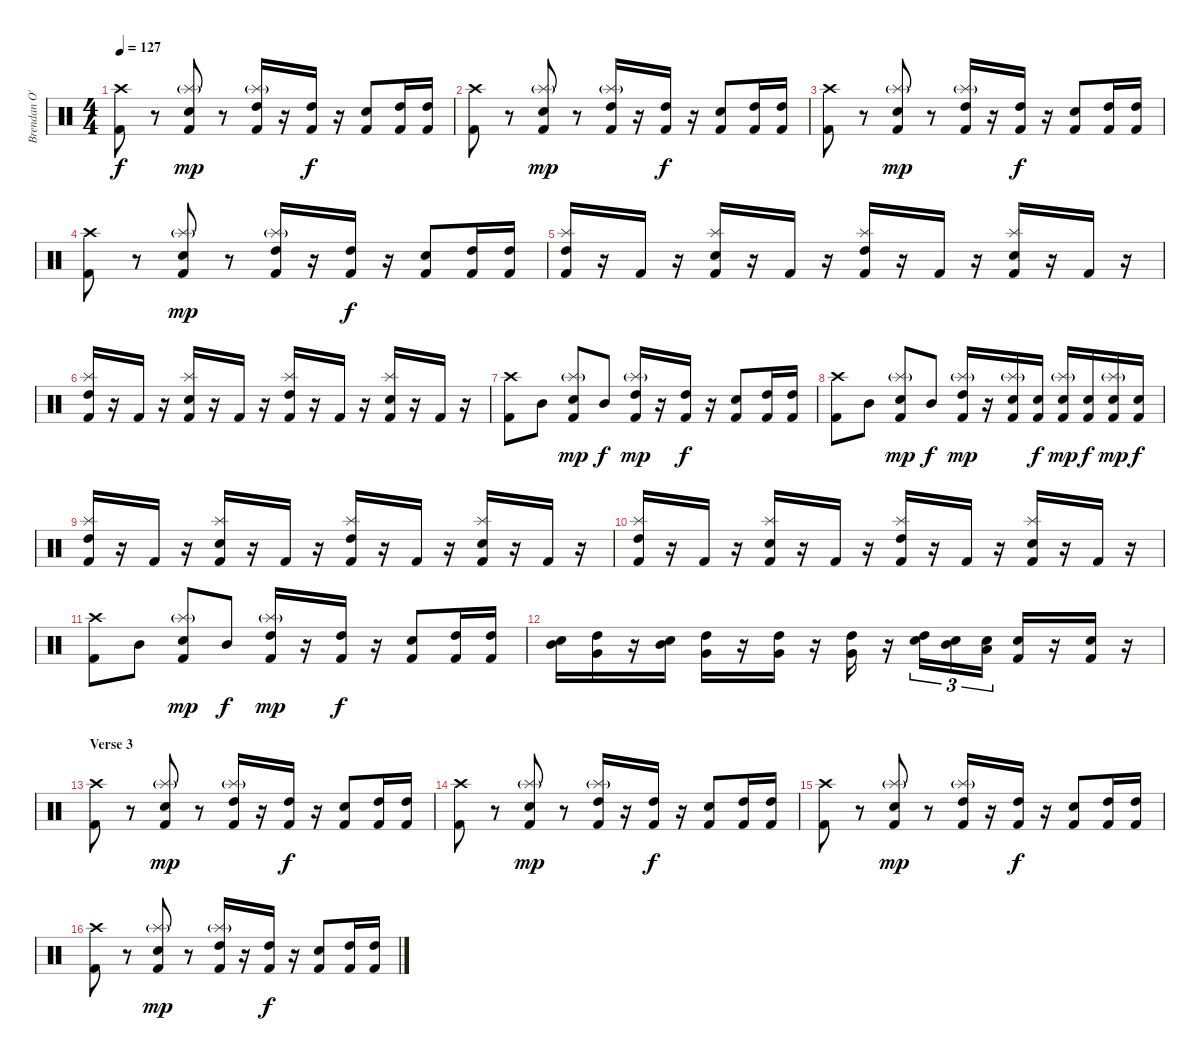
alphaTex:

\track ("Brendan O'Neil" "Brendan O'") {instrument percussion}
\staff {score}
\articulation defaults
\ts (4 4)
\tempo 127
\clef neutral
\ks c
("Crash high (hit)" "Kick (hit) 2").8{dy f} r.8 ("Splash (hit)"{g} "Snare (hit) 2" "Kick (hit) 2").8{dy mp} r.8 ("Splash (hit)"{g} "High Tom (hit)" "Kick (hit) 2").16 r.16 ("High Tom (hit)" "Kick (hit) 2").16{dy f} r.16 ("Snare (hit) 2" "Kick (hit) 2").8 ("High Tom (hit)" "Kick (hit) 2").16 ("High Tom (hit)" "Kick (hit) 2").16 |
("Crash high (hit)" "Kick (hit) 2").8 r.8 ("Splash (hit)"{g} "Snare (hit) 2" "Kick (hit) 2").8{dy mp} r.8 ("Splash (hit)"{g} "High Tom (hit)" "Kick (hit) 2").16 r.16 ("High Tom (hit)" "Kick (hit) 2").16{dy f} r.16 ("Snare (hit) 2" "Kick (hit) 2").8 ("High Tom (hit)" "Kick (hit) 2").16 ("High Tom (hit)" "Kick (hit) 2").16 |
("Crash high (hit)" "Kick (hit) 2").8 r.8 ("Splash (hit)"{g} "Snare (hit) 2" "Kick (hit) 2").8{dy mp} r.8 ("Splash (hit)"{g} "High Tom (hit)" "Kick (hit) 2").16 r.16 ("High Tom (hit)" "Kick (hit) 2").16{dy f} r.16 ("Snare (hit) 2" "Kick (hit) 2").8 ("High Tom (hit)" "Kick (hit) 2").16 ("High Tom (hit)" "Kick (hit) 2").16 |
("Crash high (hit)" "Kick (hit) 2").8 r.8 ("Splash (hit)"{g} "Snare (hit) 2" "Kick (hit) 2").8{dy mp} r.8 ("Splash (hit)"{g} "High Tom (hit)" "Kick (hit) 2").16 r.16 ("High Tom (hit)" "Kick (hit) 2").16{dy f} r.16 ("Snare (hit) 2" "Kick (hit) 2").8 ("High Tom (hit)" "Kick (hit) 2").16 ("High Tom (hit)" "Kick (hit) 2").16 |
("Splash (hit)" "High Tom (hit)" "Kick (hit) 2").16 r.16 "Kick (hit) 2".16 r.16 ("Splash (hit)" "Snare (hit) 2" "Kick (hit) 2").16 r.16 "Kick (hit) 2".16 r.16 ("Splash (hit)" "High Tom (hit)" "Kick (hit) 2").16 r.16 "Kick (hit) 2".16 r.16 ("Splash (hit)" "Snare (hit) 2" "Kick (hit) 2").16 r.16 "Kick (hit) 2".16 r.16 |
("Splash (hit)" "High Tom (hit)" "Kick (hit) 2").16 r.16 "Kick (hit) 2".16 r.16 ("Splash (hit)" "Snare (hit) 2" "Kick (hit) 2").16 r.16 "Kick (hit) 2".16 r.16 ("Splash (hit)" "High Tom (hit)" "Kick (hit) 2").16 r.16 "Kick (hit) 2".16 r.16 ("Splash (hit)" "Snare (hit) 2" "Kick (hit) 2").16 r.16 "Kick (hit) 2".16 r.16 |
("Crash high (hit)" "Kick (hit) 2").8 "Mid Tom (hit)".8 ("Splash (hit)"{g} "Snare (hit) 2" "Kick (hit) 2").8{dy mp} "Mid Tom (hit)".8{dy f} ("Splash (hit)"{g} "High Tom (hit)" "Kick (hit) 2").16{dy mp} r.16 ("High Tom (hit)" "Kick (hit) 2").16{dy f} r.16 ("Snare (hit) 2" "Kick (hit) 2").8 ("High Tom (hit)" "Kick (hit) 2").16 ("High Tom (hit)" "Kick (hit) 2").16 |
("Crash high (hit)" "Kick (hit) 2").8 "Mid Tom (hit)".8 ("Splash (hit)"{g} "Snare (hit) 2" "Kick (hit) 2").8{dy mp} "Mid Tom (hit)".8{dy f} ("Splash (hit)"{g} "High Tom (hit)" "Kick (hit) 2").16{dy mp} r.16 ("Splash (hit)"{g} "Snare (hit) 2" "Kick (hit) 2").16 ("Snare (hit) 2" "Kick (hit) 2").16{dy f} ("Splash (hit)"{g} "Snare (hit) 2" "Kick (hit) 2").16{dy mp} ("Snare (hit) 2" "Kick (hit) 2").16{dy f} ("Splash (hit)"{g} "Snare (hit) 2" "Kick (hit) 2").16{dy mp} ("Snare (hit) 2" "Kick (hit) 2").16{dy f} |
("Splash (hit)" "High Tom (hit)" "Kick (hit) 2").16 r.16 "Kick (hit) 2".16 r.16 ("Splash (hit)" "Snare (hit) 2" "Kick (hit) 2").16 r.16 "Kick (hit) 2".16 r.16 ("Splash (hit)" "High Tom (hit)" "Kick (hit) 2").16 r.16 "Kick (hit) 2".16 r.16 ("Splash (hit)" "Snare (hit) 2" "Kick (hit) 2").16 r.16 "Kick (hit) 2".16 r.16 |
("Splash (hit)" "High Tom (hit)" "Kick (hit) 2").16 r.16 "Kick (hit) 2".16 r.16 ("Splash (hit)" "Snare (hit) 2" "Kick (hit) 2").16 r.16 "Kick (hit) 2".16 r.16 ("Splash (hit)" "High Tom (hit)" "Kick (hit) 2").16 r.16 "Kick (hit) 2".16 r.16 ("Splash (hit)" "Snare (hit) 2" "Kick (hit) 2").16 r.16 "Kick (hit) 2".16 r.16 |
("Crash high (hit)" "Kick (hit) 2").8 "Mid Tom (hit)".8 ("Splash (hit)"{g} "Snare (hit) 2" "Kick (hit) 2").8{dy mp} "Mid Tom (hit)".8{dy f} ("Splash (hit)"{g} "High Tom (hit)" "Kick (hit) 2").16{dy mp} r.16 ("High Tom (hit)" "Kick (hit) 2").16{dy f} r.16 ("Snare (hit) 2" "Kick (hit) 2").8 ("High Tom (hit)" "Kick (hit) 2").16 ("High Tom (hit)" "Kick (hit) 2").16 |
("Snare (hit) 2" "Mid Tom (hit)").16 ("Very Low Tom (hit)" "High Tom (hit)").16 r.16 ("Snare (hit) 2" "Mid Tom (hit)").16 ("Very Low Tom (hit)" "High Tom (hit)").16 r.16 ("Very Low Tom (hit)" "High Tom (hit)").16 r.16 ("Very Low Tom (hit)" "High Tom (hit)").16 r.16 ("Snare (hit) 2" "High Tom (hit)").16{tu (3 2)} ("Snare (hit) 2" "Mid Tom (hit)").16{tu (3 2)} ("Snare (hit) 2" "Low Tom (hit)").16{tu (3 2)} ("Kick (hit) 2" "Electric Snare (hit)").16 r.16 ("Kick (hit) 2" "Electric Snare (hit)").16 r.16 |
\section ("" "Verse 3 ")
("Crash high (hit)" "Kick (hit) 2").8 r.8 ("Splash (hit)"{g} "Snare (hit) 2" "Kick (hit) 2").8{dy mp} r.8 ("Splash (hit)"{g} "High Tom (hit)" "Kick (hit) 2").16 r.16 ("High Tom (hit)" "Kick (hit) 2").16{dy f} r.16 ("Snare (hit) 2" "Kick (hit) 2").8 ("High Tom (hit)" "Kick (hit) 2").16 ("High Tom (hit)" "Kick (hit) 2").16 |
("Crash high (hit)" "Kick (hit) 2").8 r.8 ("Splash (hit)"{g} "Snare (hit) 2" "Kick (hit) 2").8{dy mp} r.8 ("Splash (hit)"{g} "High Tom (hit)" "Kick (hit) 2").16 r.16 ("High Tom (hit)" "Kick (hit) 2").16{dy f} r.16 ("Snare (hit) 2" "Kick (hit) 2").8 ("High Tom (hit)" "Kick (hit) 2").16 ("High Tom (hit)" "Kick (hit) 2").16 |
("Crash high (hit)" "Kick (hit) 2").8 r.8 ("Splash (hit)"{g} "Snare (hit) 2" "Kick (hit) 2").8{dy mp} r.8 ("Splash (hit)"{g} "High Tom (hit)" "Kick (hit) 2").16 r.16 ("High Tom (hit)" "Kick (hit) 2").16{dy f} r.16 ("Snare (hit) 2" "Kick (hit) 2").8 ("High Tom (hit)" "Kick (hit) 2").16 ("High Tom (hit)" "Kick (hit) 2").16 |
("Crash high (hit)" "Kick (hit) 2").8 r.8 ("Splash (hit)"{g} "Snare (hit) 2" "Kick (hit) 2").8{dy mp} r.8 ("Splash (hit)"{g} "High Tom (hit)" "Kick (hit) 2").16 r.16 ("High Tom (hit)" "Kick (hit) 2").16{dy f} r.16 ("Snare (hit) 2" "Kick (hit) 2").8 ("High Tom (hit)" "Kick (hit) 2").16 ("High Tom (hit)" "Kick (hit) 2").16
